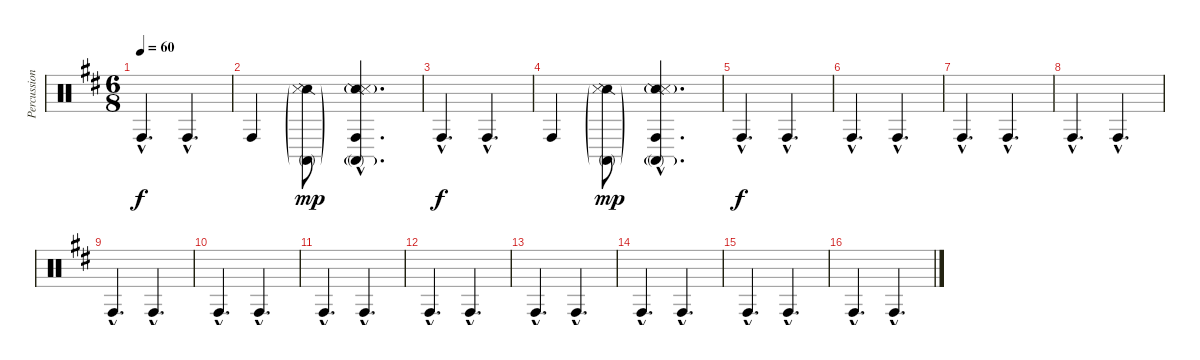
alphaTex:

\track ("Percussions" "Percussion") {instrument percussion}
\staff {score}
\articulation defaults
\ts (6 8)
\tempo 60
\clef neutral
\ks bminor "Conga high (hit)"{hac}.4{d dy f} "Conga high (hit)"{hac}.4{d}
|
"Conga high (hit)".4 ("Snare (side stick) 2"{g} "Conga high (mute)"{g} "Metronome (hit)"{g}).8{dy mp} ("Conga high (hit)"{hac} "Snare (side stick) 2"{g hac} "Conga high (mute)"{g hac} "Metronome (hit)"{g hac}).4{d} |
"Conga high (hit)"{hac}.4{d dy f} "Conga high (hit)"{hac}.4{d} |
"Conga high (hit)".4 ("Snare (side stick) 2"{g} "Conga high (mute)"{g} "Metronome (hit)"{g}).8{dy mp} ("Conga high (hit)"{hac} "Snare (side stick) 2"{g hac} "Conga high (mute)"{g hac} "Metronome (hit)"{g hac}).4{d} |
"Conga high (hit)"{hac}.4{d dy f} "Conga high (hit)"{hac}.4{d} |
"Conga high (hit)"{hac}.4{d} "Conga high (hit)"{hac}.4{d} |
"Conga high (hit)"{hac}.4{d} "Conga high (hit)"{hac}.4{d} |
"Conga high (hit)"{hac}.4{d} "Conga high (hit)"{hac}.4{d} |
"Conga high (hit)"{hac}.4{d} "Conga high (hit)"{hac}.4{d} |
"Conga high (hit)"{hac}.4{d} "Conga high (hit)"{hac}.4{d} |
"Conga high (hit)"{hac}.4{d} "Conga high (hit)"{hac}.4{d} |
"Conga high (hit)"{hac}.4{d} "Conga high (hit)"{hac}.4{d} |
"Conga high (hit)"{hac}.4{d} "Conga high (hit)"{hac}.4{d} |
"Conga high (hit)"{hac}.4{d} "Conga high (hit)"{hac}.4{d} |
"Conga high (hit)"{hac}.4{d} "Conga high (hit)"{hac}.4{d} |
"Conga high (hit)"{hac}.4{d} "Conga high (hit)"{hac}.4{d}
